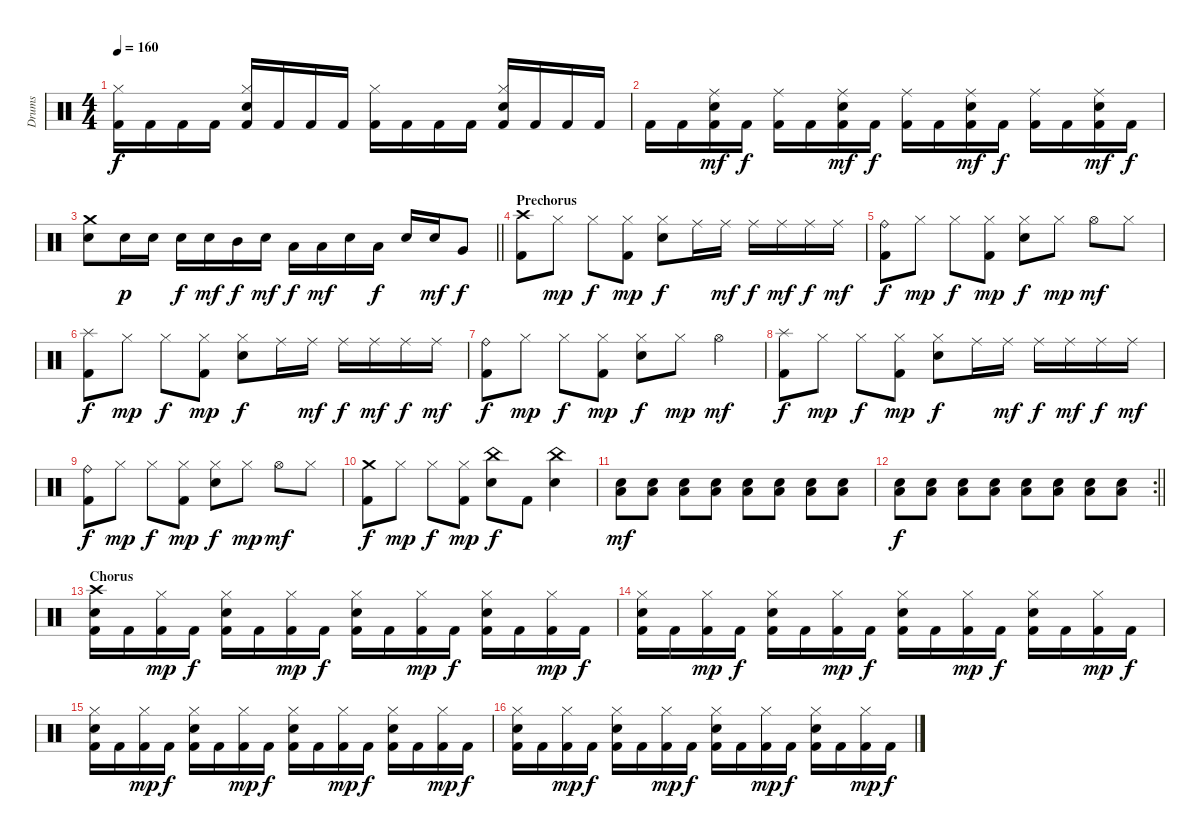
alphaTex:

\track ("Drums" "Drums") {instrument percussion}
\staff {score}
\articulation defaults
\ts (4 4)
\tempo 160
\clef neutral
\ks c
("Kick (hit) 2" "Hi-Hat (closed)").16{dy f} "Kick (hit) 2".16 "Kick (hit) 2".16 "Kick (hit) 2".16 ("Kick (hit) 2" "Hi-Hat (closed)" "Electric Snare (hit)").16 "Kick (hit) 2".16 "Kick (hit) 2".16 "Kick (hit) 2".16 ("Kick (hit) 2" "Hi-Hat (closed)").16 "Kick (hit) 2".16 "Kick (hit) 2".16 "Kick (hit) 2".16 ("Kick (hit) 2" "Hi-Hat (closed)" "Electric Snare (hit)").16 "Kick (hit) 2".16 "Kick (hit) 2".16 "Kick (hit) 2".16 |
"Kick (hit) 2".16 "Kick (hit) 2".16 ("Kick (hit) 2" "Ride (middle)" "Electric Snare (hit)").16{dy mf} "Kick (hit) 2".16{dy f} ("Kick (hit) 2" "Ride (middle)").16 "Kick (hit) 2".16 ("Kick (hit) 2" "Ride (middle)" "Electric Snare (hit)").16{dy mf} "Kick (hit) 2".16{dy f} ("Kick (hit) 2" "Ride (middle)").16 "Kick (hit) 2".16 ("Kick (hit) 2" "Ride (middle)" "Electric Snare (hit)").16{dy mf} "Kick (hit) 2".16{dy f} ("Kick (hit) 2" "Ride (middle)").16 "Kick (hit) 2".16 ("Kick (hit) 2" "Ride (middle)" "Electric Snare (hit)").16{dy mf} "Kick (hit) 2".16{dy f} |
\barLineRight lightlight
("Crash medium (hit)" "Electric Snare (hit)").8 "Electric Snare (hit)".16{dy p} "Electric Snare (hit)".16 "Electric Snare (hit)".16{dy f} "Electric Snare (hit)".16{dy mf} "Mid Tom (hit)".16{dy f} "Electric Snare (hit)".16{dy mf} "Low Tom (hit)".16{dy f} "Low Tom (hit)".16{dy mf} "Electric Snare (hit)".16 "Low Tom (hit)".16{dy f} "Electric Snare (hit)".16 "Electric Snare (hit)".16{dy mf} "Very Low Tom (hit)".8{dy f} |
\section ("" "Prechorus")
("Kick (hit) 2" "Crash high (hit)").8 "Hi-Hat (closed)".8{dy mp} "Hi-Hat (closed)".8{dy f} ("Kick (hit) 2" "Hi-Hat (closed)").8{dy mp} ("Hi-Hat (closed)" "Electric Snare (hit)").8{dy f} "Ride (middle)".16 "Ride (middle)".16{dy mf} "Ride (middle)".16{dy f} "Ride (middle)".16{dy mf} "Ride (middle)".16{dy f} "Ride (middle)".16{dy mf} |
("Kick (hit) 2" "Ride (bell)").8{dy f} "Hi-Hat (closed)".8{dy mp} "Hi-Hat (closed)".8{dy f} ("Kick (hit) 2" "Hi-Hat (closed)").8{dy mp} ("Hi-Hat (closed)" "Electric Snare (hit)").8{dy f} "Hi-Hat (closed)".8{dy mp} "Hi-Hat (open)".8{dy mf} "Hi-Hat (closed)".8 |
("Kick (hit) 2" "Splash (hit)").8{dy f} "Hi-Hat (closed)".8{dy mp} "Hi-Hat (closed)".8{dy f} ("Kick (hit) 2" "Hi-Hat (closed)").8{dy mp} ("Hi-Hat (closed)" "Electric Snare (hit)").8{dy f} "Ride (middle)".16 "Ride (middle)".16{dy mf} "Ride (middle)".16{dy f} "Ride (middle)".16{dy mf} "Ride (middle)".16{dy f} "Ride (middle)".16{dy mf} |
("Kick (hit) 2" "Ride (bell)").8{dy f} "Hi-Hat (closed)".8{dy mp} "Hi-Hat (closed)".8{dy f} ("Kick (hit) 2" "Hi-Hat (closed)").8{dy mp} ("Hi-Hat (closed)" "Electric Snare (hit)").8{dy f} "Hi-Hat (closed)".8{dy mp} "Hi-Hat (open)".4{dy mf} |
("Kick (hit) 2" "Splash (hit)").8{dy f} "Hi-Hat (closed)".8{dy mp} "Hi-Hat (closed)".8{dy f} ("Kick (hit) 2" "Hi-Hat (closed)").8{dy mp} ("Hi-Hat (closed)" "Electric Snare (hit)").8{dy f} "Ride (middle)".16 "Ride (middle)".16{dy mf} "Ride (middle)".16{dy f} "Ride (middle)".16{dy mf} "Ride (middle)".16{dy f} "Ride (middle)".16{dy mf} |
("Kick (hit) 2" "Ride (bell)").8{dy f} "Hi-Hat (closed)".8{dy mp} "Hi-Hat (closed)".8{dy f} ("Kick (hit) 2" "Hi-Hat (closed)").8{dy mp} ("Hi-Hat (closed)" "Electric Snare (hit)").8{dy f} "Hi-Hat (closed)".8{dy mp} "Hi-Hat (open)".8{dy mf} "Hi-Hat (closed)".8 |
("Kick (hit) 2" "Crash medium (hit)").8{dy f} "Hi-Hat (closed)".8{dy mp} "Hi-Hat (closed)".8{dy f} ("Kick (hit) 2" "Hi-Hat (closed)").8{dy mp} ("China (hit)" "Electric Snare (hit)").8{dy f} "Kick (hit) 2".8 ("China (hit)" "Electric Snare (hit)").4 |
("Low Tom (hit)" "Electric Snare (hit)").8{dy mf} ("Low Tom (hit)" "Electric Snare (hit)").8 ("Low Tom (hit)" "Electric Snare (hit)").8 ("Low Tom (hit)" "Electric Snare (hit)").8 ("Low Tom (hit)" "Electric Snare (hit)").8 ("Low Tom (hit)" "Electric Snare (hit)").8 ("Low Tom (hit)" "Electric Snare (hit)").8 ("Low Tom (hit)" "Electric Snare (hit)").8 |
\rc 2
\barLineRight lightlight
("Low Tom (hit)" "Electric Snare (hit)").8{dy f} ("Low Tom (hit)" "Electric Snare (hit)").8 ("Low Tom (hit)" "Electric Snare (hit)").8 ("Low Tom (hit)" "Electric Snare (hit)").8 ("Low Tom (hit)" "Electric Snare (hit)").8 ("Low Tom (hit)" "Electric Snare (hit)").8 ("Low Tom (hit)" "Electric Snare (hit)").8 ("Low Tom (hit)" "Electric Snare (hit)").8 |
\section ("" "Chorus")
("Kick (hit) 2" "Crash high (hit)" "Electric Snare (hit)").16 "Kick (hit) 2".16 ("Kick (hit) 2" "Hi-Hat (closed)").16{dy mp} "Kick (hit) 2".16{dy f} ("Kick (hit) 2" "Hi-Hat (closed)" "Electric Snare (hit)").16 "Kick (hit) 2".16 ("Kick (hit) 2" "Hi-Hat (closed)").16{dy mp} "Kick (hit) 2".16{dy f} ("Kick (hit) 2" "Hi-Hat (closed)" "Electric Snare (hit)").16 "Kick (hit) 2".16 ("Kick (hit) 2" "Hi-Hat (closed)").16{dy mp} "Kick (hit) 2".16{dy f} ("Kick (hit) 2" "Hi-Hat (closed)" "Electric Snare (hit)").16 "Kick (hit) 2".16 ("Kick (hit) 2" "Hi-Hat (closed)").16{dy mp} "Kick (hit) 2".16{dy f} |
("Kick (hit) 2" "Hi-Hat (closed)" "Electric Snare (hit)").16 "Kick (hit) 2".16 ("Kick (hit) 2" "Hi-Hat (closed)").16{dy mp} "Kick (hit) 2".16{dy f} ("Kick (hit) 2" "Hi-Hat (closed)" "Electric Snare (hit)").16 "Kick (hit) 2".16 ("Kick (hit) 2" "Hi-Hat (closed)").16{dy mp} "Kick (hit) 2".16{dy f} ("Kick (hit) 2" "Hi-Hat (closed)" "Electric Snare (hit)").16 "Kick (hit) 2".16 ("Kick (hit) 2" "Hi-Hat (closed)").16{dy mp} "Kick (hit) 2".16{dy f} ("Kick (hit) 2" "Hi-Hat (closed)" "Electric Snare (hit)").16 "Kick (hit) 2".16 ("Kick (hit) 2" "Hi-Hat (closed)").16{dy mp} "Kick (hit) 2".16{dy f} |
("Kick (hit) 2" "Hi-Hat (closed)" "Electric Snare (hit)").16 "Kick (hit) 2".16 ("Kick (hit) 2" "Hi-Hat (closed)").16{dy mp} "Kick (hit) 2".16{dy f} ("Kick (hit) 2" "Hi-Hat (closed)" "Electric Snare (hit)").16 "Kick (hit) 2".16 ("Kick (hit) 2" "Hi-Hat (closed)").16{dy mp} "Kick (hit) 2".16{dy f} ("Kick (hit) 2" "Hi-Hat (closed)" "Electric Snare (hit)").16 "Kick (hit) 2".16 ("Kick (hit) 2" "Hi-Hat (closed)").16{dy mp} "Kick (hit) 2".16{dy f} ("Kick (hit) 2" "Hi-Hat (closed)" "Electric Snare (hit)").16 "Kick (hit) 2".16 ("Kick (hit) 2" "Hi-Hat (closed)").16{dy mp} "Kick (hit) 2".16{dy f} |
("Kick (hit) 2" "Hi-Hat (closed)" "Electric Snare (hit)").16 "Kick (hit) 2".16 ("Kick (hit) 2" "Hi-Hat (closed)").16{dy mp} "Kick (hit) 2".16{dy f} ("Kick (hit) 2" "Hi-Hat (closed)" "Electric Snare (hit)").16 "Kick (hit) 2".16 ("Kick (hit) 2" "Hi-Hat (closed)").16{dy mp} "Kick (hit) 2".16{dy f} ("Kick (hit) 2" "Hi-Hat (closed)" "Electric Snare (hit)").16 "Kick (hit) 2".16 ("Kick (hit) 2" "Hi-Hat (closed)").16{dy mp} "Kick (hit) 2".16{dy f} ("Kick (hit) 2" "Hi-Hat (closed)" "Electric Snare (hit)").16 "Kick (hit) 2".16 ("Kick (hit) 2" "Hi-Hat (closed)").16{dy mp} "Kick (hit) 2".16{dy f}
